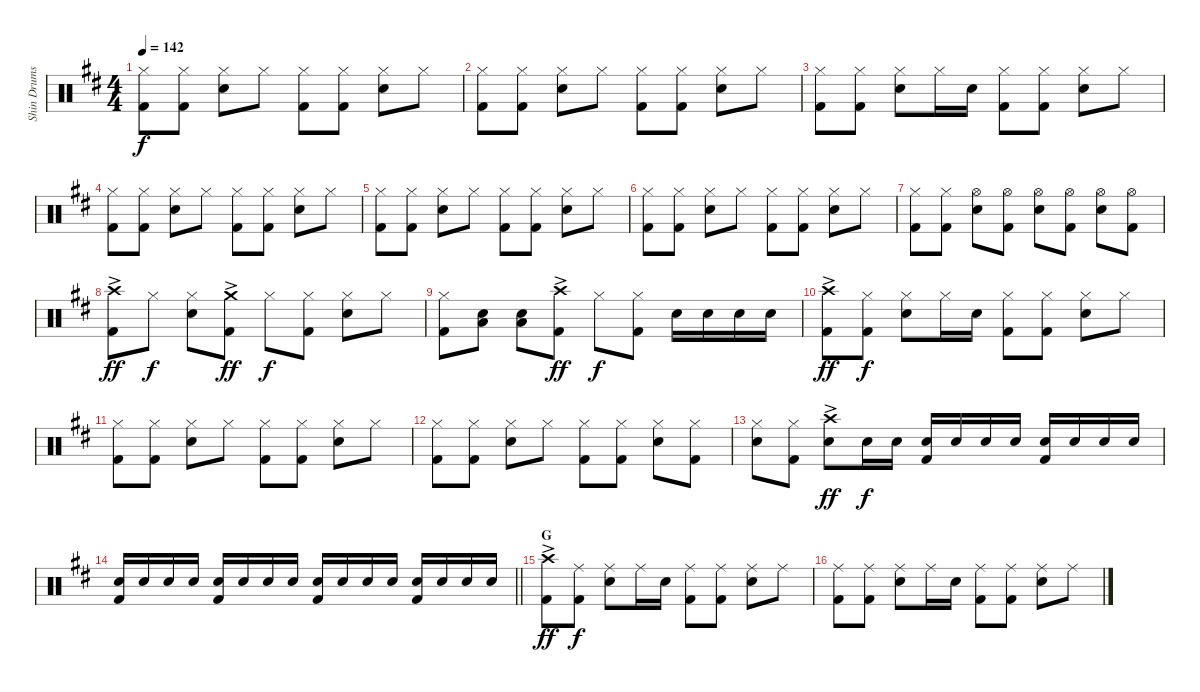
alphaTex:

\track ("Shin Drums" "Shin Drums") {instrument percussion}
\staff {score}
\articulation defaults
\ts (4 4)
\tempo 142
\clef neutral
\ks d
("Hi-Hat (closed)" "Kick (hit) 2").8{dy f} ("Hi-Hat (closed)" "Kick (hit) 2").8 ("Hi-Hat (closed)" "Snare (hit) 2").8 "Hi-Hat (closed)".8 ("Hi-Hat (closed)" "Kick (hit) 2").8 ("Hi-Hat (closed)" "Kick (hit) 2").8 ("Hi-Hat (closed)" "Snare (hit) 2").8 "Hi-Hat (closed)".8 |
("Hi-Hat (closed)" "Kick (hit) 2").8 ("Hi-Hat (closed)" "Kick (hit) 2").8 ("Hi-Hat (closed)" "Snare (hit) 2").8 "Hi-Hat (closed)".8 ("Hi-Hat (closed)" "Kick (hit) 2").8 ("Hi-Hat (closed)" "Kick (hit) 2").8 ("Hi-Hat (closed)" "Snare (hit) 2").8 "Hi-Hat (closed)".8 |
("Hi-Hat (closed)" "Kick (hit) 2").8 ("Hi-Hat (closed)" "Kick (hit) 2").8 ("Hi-Hat (closed)" "Snare (hit) 2").8 "Hi-Hat (closed)".16 "Snare (hit) 2".16 ("Hi-Hat (closed)" "Kick (hit) 2").8 ("Hi-Hat (closed)" "Kick (hit) 2").8 ("Hi-Hat (closed)" "Snare (hit) 2").8 "Hi-Hat (closed)".8 |
("Hi-Hat (closed)" "Kick (hit) 2").8 ("Hi-Hat (closed)" "Kick (hit) 2").8 ("Hi-Hat (closed)" "Snare (hit) 2").8 "Hi-Hat (closed)".8 ("Hi-Hat (closed)" "Kick (hit) 2").8 ("Hi-Hat (closed)" "Kick (hit) 2").8 ("Hi-Hat (closed)" "Snare (hit) 2").8 "Hi-Hat (closed)".8 |
("Hi-Hat (closed)" "Kick (hit) 2").8 ("Hi-Hat (closed)" "Kick (hit) 2").8 ("Hi-Hat (closed)" "Snare (hit) 2").8 "Hi-Hat (closed)".8 ("Hi-Hat (closed)" "Kick (hit) 2").8 ("Hi-Hat (closed)" "Kick (hit) 2").8 ("Hi-Hat (closed)" "Snare (hit) 2").8 "Hi-Hat (closed)".8 |
("Hi-Hat (closed)" "Kick (hit) 2").8 ("Hi-Hat (closed)" "Kick (hit) 2").8 ("Hi-Hat (closed)" "Snare (hit) 2").8 "Hi-Hat (closed)".8 ("Hi-Hat (closed)" "Kick (hit) 2").8 ("Hi-Hat (closed)" "Kick (hit) 2").8 ("Hi-Hat (closed)" "Snare (hit) 2").8 "Hi-Hat (closed)".8 |
("Hi-Hat (closed)" "Kick (hit) 2").8 ("Hi-Hat (closed)" "Kick (hit) 2").8 ("Hi-Hat (open)" "Snare (hit) 2").8 ("Hi-Hat (open)" "Kick (hit) 2").8 ("Hi-Hat (open)" "Snare (hit) 2").8 ("Hi-Hat (open)" "Kick (hit) 2").8 ("Hi-Hat (open)" "Snare (hit) 2").8 ("Hi-Hat (open)" "Kick (hit) 2").8 |
("Crash high (hit)"{ac} "Kick (hit) 2").8{dy ff} "Hi-Hat (closed)".8{dy f} ("Hi-Hat (closed)" "Snare (hit) 2").8 ("Crash medium (hit)"{ac} "Kick (hit) 2").8{dy ff} "Hi-Hat (closed)".8{dy f} ("Hi-Hat (closed)" "Kick (hit) 2").8 ("Hi-Hat (closed)" "Snare (hit) 2").8 "Hi-Hat (closed)".8 |
("Hi-Hat (closed)" "Kick (hit) 2").8 ("Snare (hit) 2" "Low Tom (hit)").8 ("Snare (hit) 2" "Low Tom (hit)").8 ("Crash high (hit)"{ac} "Kick (hit) 2").8{dy ff} "Hi-Hat (closed)".8{dy f} ("Hi-Hat (closed)" "Kick (hit) 2").8 "Snare (hit) 2".16 "Snare (hit) 2".16 "Snare (hit) 2".16 "Snare (hit) 2".16 |
("Crash high (hit)"{ac} "Kick (hit) 2").8{dy ff} ("Hi-Hat (closed)" "Kick (hit) 2").8{dy f} ("Hi-Hat (closed)" "Snare (hit) 2").8 "Hi-Hat (closed)".16 "Snare (hit) 2".16 ("Hi-Hat (closed)" "Kick (hit) 2").8 ("Hi-Hat (closed)" "Kick (hit) 2").8 ("Hi-Hat (closed)" "Snare (hit) 2").8 "Hi-Hat (closed)".8 |
("Hi-Hat (closed)" "Kick (hit) 2").8 ("Hi-Hat (closed)" "Kick (hit) 2").8 ("Hi-Hat (closed)" "Snare (hit) 2").8 "Hi-Hat (closed)".8 ("Hi-Hat (closed)" "Kick (hit) 2").8 ("Hi-Hat (closed)" "Kick (hit) 2").8 ("Hi-Hat (closed)" "Snare (hit) 2").8 "Hi-Hat (closed)".8 |
("Hi-Hat (closed)" "Kick (hit) 2").8 ("Hi-Hat (closed)" "Kick (hit) 2").8 ("Hi-Hat (closed)" "Snare (hit) 2").8 "Hi-Hat (closed)".8 ("Hi-Hat (closed)" "Kick (hit) 2").8 ("Hi-Hat (closed)" "Kick (hit) 2").8 ("Hi-Hat (closed)" "Snare (hit) 2").8 ("Hi-Hat (closed)" "Kick (hit) 2").8 |
("Hi-Hat (closed)" "Snare (hit) 2").8 ("Hi-Hat (closed)" "Kick (hit) 2").8 ("Crash high (hit)"{ac} "Snare (hit) 2").8{dy ff} "Snare (hit) 2".16{dy f} "Snare (hit) 2".16 ("Snare (hit) 2" "Kick (hit) 2").16 "Snare (hit) 2".16 "Snare (hit) 2".16 "Snare (hit) 2".16 ("Snare (hit) 2" "Kick (hit) 2").16 "Snare (hit) 2".16 "Snare (hit) 2".16 "Snare (hit) 2".16 |
\barLineRight lightlight
("Snare (hit) 2" "Kick (hit) 2").16 "Snare (hit) 2".16 "Snare (hit) 2".16 "Snare (hit) 2".16 ("Snare (hit) 2" "Kick (hit) 2").16 "Snare (hit) 2".16 "Snare (hit) 2".16 "Snare (hit) 2".16 ("Snare (hit) 2" "Kick (hit) 2").16 "Snare (hit) 2".16 "Snare (hit) 2".16 "Snare (hit) 2".16 ("Snare (hit) 2" "Kick (hit) 2").16 "Snare (hit) 2".16 "Snare (hit) 2".16 "Snare (hit) 2".16 |
\section ("" "G")
("Crash high (hit)"{ac} "Kick (hit) 2").8{dy ff} ("Ride (middle)" "Kick (hit) 2").8{dy f} ("Ride (middle)" "Snare (hit) 2").8 "Ride (middle)".16 "Snare (hit) 2".16 ("Ride (middle)" "Kick (hit) 2").8 ("Ride (middle)" "Kick (hit) 2").8 ("Ride (middle)" "Snare (hit) 2").8 "Ride (middle)".8 |
("Ride (middle)" "Kick (hit) 2").8 ("Ride (middle)" "Kick (hit) 2").8 ("Ride (middle)" "Snare (hit) 2").8 "Ride (middle)".16 "Snare (hit) 2".16 ("Ride (middle)" "Kick (hit) 2").8 ("Ride (middle)" "Kick (hit) 2").8 ("Ride (middle)" "Snare (hit) 2").8 "Ride (middle)".8
